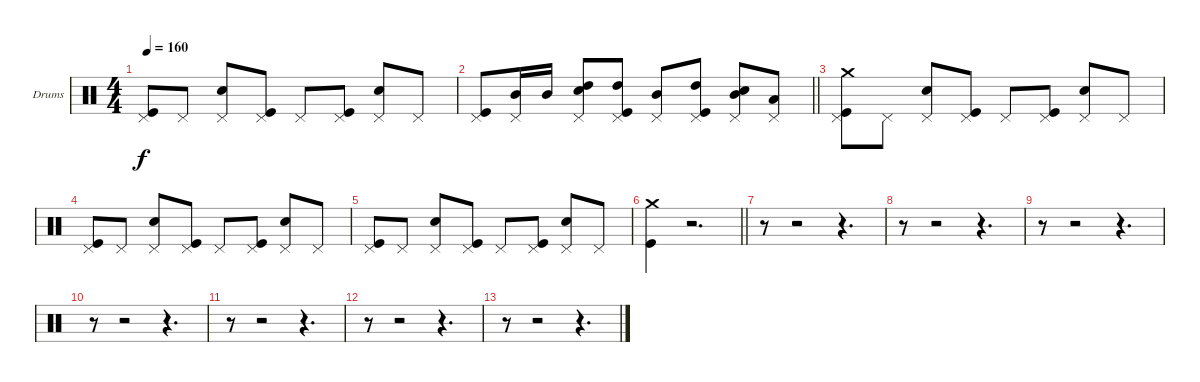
\bracketExtendMode groupsimilarinstruments
\firstSystemTrackNameOrientation horizontal
\otherSystemsTrackNameOrientation horizontal
\track ("Ударные" "Drums") {instrument percussion}
\staff {score}
\articulation defaults
\ts (4 4)
\tempo 160
\clef neutral
\ks c
("Pedal Hi-Hat (hit)" "Kick (hit)").8{dy f} "Pedal Hi-Hat (hit)".8 ("Pedal Hi-Hat (hit)" "Snare (hit) 2").8 ("Pedal Hi-Hat (hit)" "Kick (hit)").8 "Pedal Hi-Hat (hit)".8 ("Pedal Hi-Hat (hit)" "Kick (hit)").8 ("Pedal Hi-Hat (hit)" "Snare (hit) 2").8 "Pedal Hi-Hat (hit)".8 |
\barLineRight lightlight
("Pedal Hi-Hat (hit)" "Kick (hit)").8 ("Pedal Hi-Hat (hit)" "Mid Tom (hit)").16 "Mid Tom (hit)".16 ("Pedal Hi-Hat (hit)" "High Tom (hit)" "Snare (hit) 2").8 ("Pedal Hi-Hat (hit)" "High Tom (hit)" "Kick (hit)").8 ("Pedal Hi-Hat (hit)" "Mid Tom (hit)").8 ("Pedal Hi-Hat (hit)" "High Tom (hit)" "Kick (hit)").8 ("Pedal Hi-Hat (hit)" "Mid Tom (hit)" "Snare (hit) 2").8 ("Pedal Hi-Hat (hit)" "Low Tom (hit)").8 |
("Pedal Hi-Hat (hit)" "Crash medium (hit)" "Kick (hit)").8 "Pedal Hi-Hat (hit)".8 ("Pedal Hi-Hat (hit)" "Snare (hit) 2").8 ("Pedal Hi-Hat (hit)" "Kick (hit)").8 "Pedal Hi-Hat (hit)".8 ("Pedal Hi-Hat (hit)" "Kick (hit)").8 ("Pedal Hi-Hat (hit)" "Snare (hit) 2").8 "Pedal Hi-Hat (hit)".8 |
("Pedal Hi-Hat (hit)" "Kick (hit)").8 "Pedal Hi-Hat (hit)".8 ("Pedal Hi-Hat (hit)" "Snare (hit) 2").8 ("Pedal Hi-Hat (hit)" "Kick (hit)").8 "Pedal Hi-Hat (hit)".8 ("Pedal Hi-Hat (hit)" "Kick (hit)").8 ("Pedal Hi-Hat (hit)" "Snare (hit) 2").8 "Pedal Hi-Hat (hit)".8 |
("Pedal Hi-Hat (hit)" "Kick (hit)").8 "Pedal Hi-Hat (hit)".8 ("Pedal Hi-Hat (hit)" "Snare (hit) 2").8 ("Pedal Hi-Hat (hit)" "Kick (hit)").8 "Pedal Hi-Hat (hit)".8 ("Pedal Hi-Hat (hit)" "Kick (hit)").8 ("Pedal Hi-Hat (hit)" "Snare (hit) 2").8 "Pedal Hi-Hat (hit)".8 |
\barLineRight lightlight
("Crash medium (hit)" "Kick (hit)").4 r.2{d} |
r.8 r.2 r.4{d} |
r.8 r.2 r.4{d} |
r.8 r.2 r.4{d} |
r.8 r.2 r.4{d} |
r.8 r.2 r.4{d} |
r.8 r.2 r.4{d} |
r.8 r.2 r.4{d}
